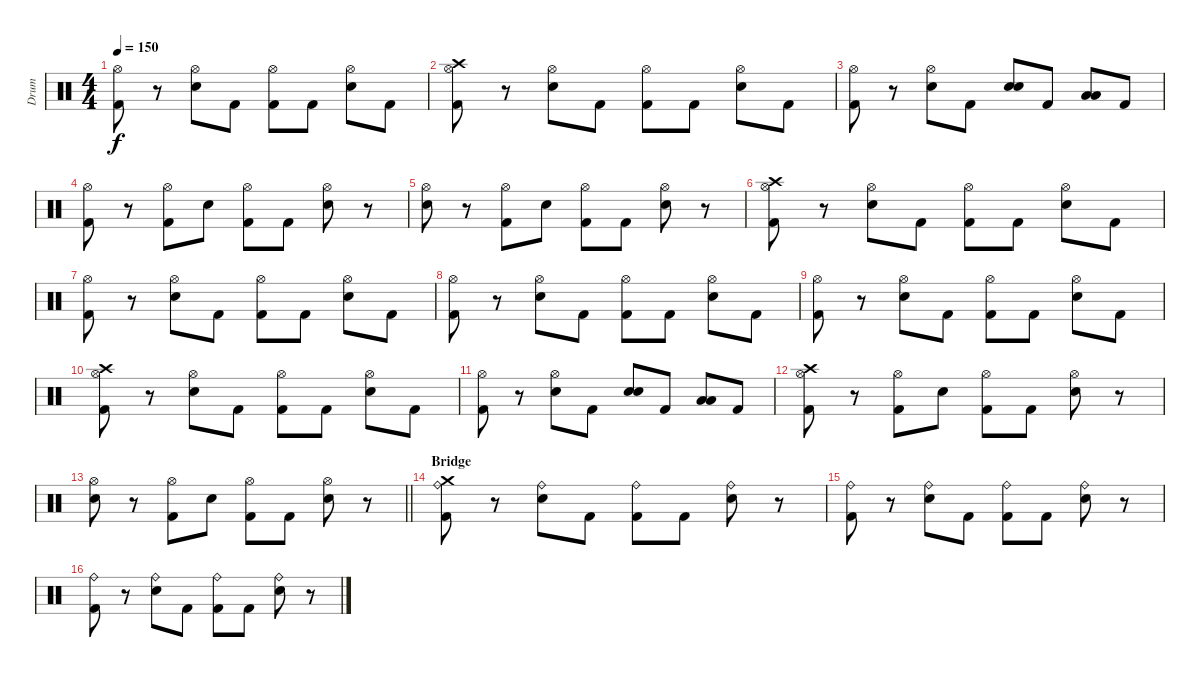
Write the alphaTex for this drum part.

\track ("Drum" "Drum") {instrument percussion}
\staff {score}
\articulation defaults
\ts (4 4)
\tempo 150
\clef neutral
\ks c
("Hi-Hat (open)" "Kick (hit) 2").8{dy f} r.8 ("Hi-Hat (open)" "Electric Snare (hit)").8 "Kick (hit) 2".8 ("Hi-Hat (open)" "Kick (hit) 2").8 "Kick (hit) 2".8 ("Hi-Hat (open)" "Electric Snare (hit)").8 "Kick (hit) 2".8 |
("Hi-Hat (open)" "Kick (hit) 2" "Crash high (hit)").8 r.8 ("Hi-Hat (open)" "Electric Snare (hit)").8 "Kick (hit) 2".8 ("Hi-Hat (open)" "Kick (hit) 2").8 "Kick (hit) 2".8 ("Hi-Hat (open)" "Electric Snare (hit)").8 "Kick (hit) 2".8 |
("Hi-Hat (open)" "Kick (hit) 2").8 r.8 ("Hi-Hat (open)" "Electric Snare (hit)").8 "Kick (hit) 2".8 ("Electric Snare (hit)" "Electric Snare (hit)").8 "Kick (hit) 2".8 ("Low Floor Tom (hit)" "Low Floor Tom (hit)").8 "Kick (hit) 2".8 |
("Hi-Hat (open)" "Kick (hit) 2").8 r.8 ("Hi-Hat (open)" "Kick (hit) 2").8 "Electric Snare (hit)".8 ("Hi-Hat (open)" "Kick (hit) 2").8 "Kick (hit) 2".8 ("Hi-Hat (open)" "Electric Snare (hit)").8 r.8 |
("Hi-Hat (open)" "Electric Snare (hit)").8 r.8 ("Hi-Hat (open)" "Kick (hit) 2").8 "Electric Snare (hit)".8 ("Hi-Hat (open)" "Kick (hit) 2").8 "Kick (hit) 2".8 ("Hi-Hat (open)" "Electric Snare (hit)").8 r.8 |
("Hi-Hat (open)" "Kick (hit) 2" "Crash high (hit)").8 r.8 ("Hi-Hat (open)" "Electric Snare (hit)").8 "Kick (hit) 2".8 ("Hi-Hat (open)" "Kick (hit) 2").8 "Kick (hit) 2".8 ("Hi-Hat (open)" "Electric Snare (hit)").8 "Kick (hit) 2".8 |
("Hi-Hat (open)" "Kick (hit) 2").8 r.8 ("Hi-Hat (open)" "Electric Snare (hit)").8 "Kick (hit) 2".8 ("Hi-Hat (open)" "Kick (hit) 2").8 "Kick (hit) 2".8 ("Hi-Hat (open)" "Electric Snare (hit)").8 "Kick (hit) 2".8 |
("Hi-Hat (open)" "Kick (hit) 2").8 r.8 ("Hi-Hat (open)" "Electric Snare (hit)").8 "Kick (hit) 2".8 ("Hi-Hat (open)" "Kick (hit) 2").8 "Kick (hit) 2".8 ("Hi-Hat (open)" "Electric Snare (hit)").8 "Kick (hit) 2".8 |
("Hi-Hat (open)" "Kick (hit) 2").8 r.8 ("Hi-Hat (open)" "Electric Snare (hit)").8 "Kick (hit) 2".8 ("Hi-Hat (open)" "Kick (hit) 2").8 "Kick (hit) 2".8 ("Hi-Hat (open)" "Electric Snare (hit)").8 "Kick (hit) 2".8 |
("Hi-Hat (open)" "Kick (hit) 2" "Crash high (hit)").8 r.8 ("Hi-Hat (open)" "Electric Snare (hit)").8 "Kick (hit) 2".8 ("Hi-Hat (open)" "Kick (hit) 2").8 "Kick (hit) 2".8 ("Hi-Hat (open)" "Electric Snare (hit)").8 "Kick (hit) 2".8 |
("Hi-Hat (open)" "Kick (hit) 2").8 r.8 ("Hi-Hat (open)" "Electric Snare (hit)").8 "Kick (hit) 2".8 ("Electric Snare (hit)" "Electric Snare (hit)").8 "Kick (hit) 2".8 ("Low Floor Tom (hit)" "Low Floor Tom (hit)").8 "Kick (hit) 2".8 |
("Hi-Hat (open)" "Kick (hit) 2" "Crash high (hit)").8 r.8 ("Hi-Hat (open)" "Kick (hit) 2").8 "Electric Snare (hit)".8 ("Hi-Hat (open)" "Kick (hit) 2").8 "Kick (hit) 2".8 ("Hi-Hat (open)" "Electric Snare (hit)").8 r.8 |
\barLineRight lightlight
("Hi-Hat (open)" "Electric Snare (hit)").8 r.8 ("Hi-Hat (open)" "Kick (hit) 2").8 "Electric Snare (hit)".8 ("Hi-Hat (open)" "Kick (hit) 2").8 "Kick (hit) 2".8 ("Hi-Hat (open)" "Electric Snare (hit)").8 r.8 |
\section ("" "Bridge")
("Ride (bell)" "Kick (hit) 2" "Crash medium (hit)").8 r.8 ("Ride (bell)" "Electric Snare (hit)").8 "Kick (hit) 2".8 ("Ride (bell)" "Kick (hit) 2").8 "Kick (hit) 2".8 ("Ride (bell)" "Electric Snare (hit)").8 r.8 |
("Ride (bell)" "Kick (hit) 2").8 r.8 ("Ride (bell)" "Electric Snare (hit)").8 "Kick (hit) 2".8 ("Ride (bell)" "Kick (hit) 2").8 "Kick (hit) 2".8 ("Ride (bell)" "Electric Snare (hit)").8 r.8 |
("Ride (bell)" "Kick (hit) 2").8 r.8 ("Ride (bell)" "Electric Snare (hit)").8 "Kick (hit) 2".8 ("Ride (bell)" "Kick (hit) 2").8 "Kick (hit) 2".8 ("Ride (bell)" "Electric Snare (hit)").8 r.8
